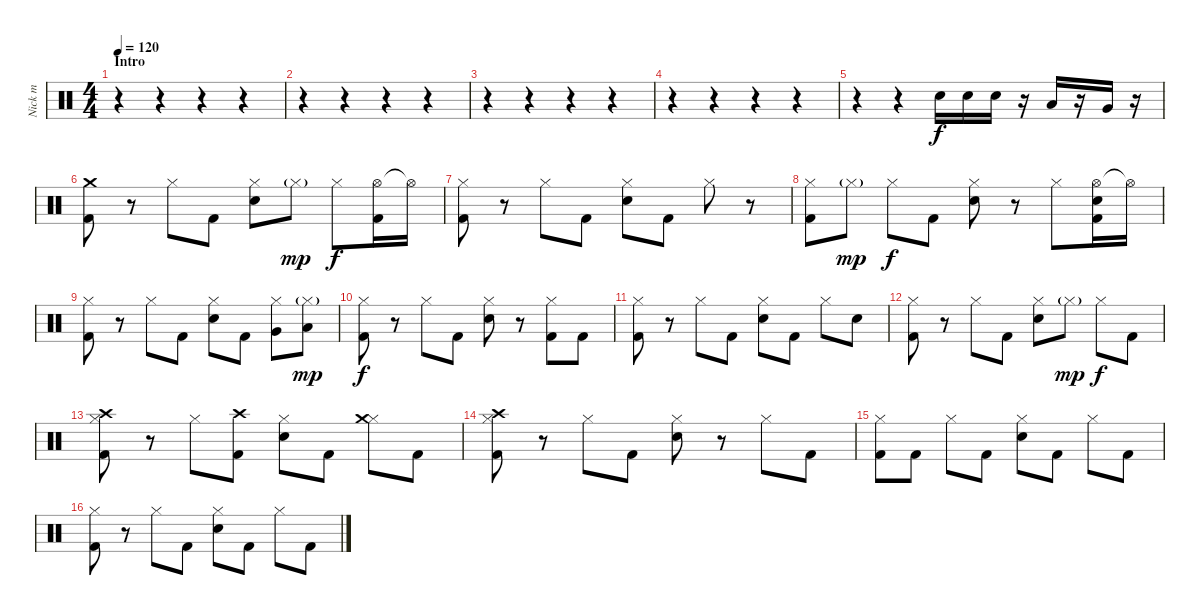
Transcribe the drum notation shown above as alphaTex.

\track ("Nick m" "Nick m") {instrument percussion}
\staff {score}
\articulation defaults
\ts (4 4)
\section ("" "Intro")
\tempo 120
\clef neutral
\ks c
r.4{dy f} r.4 r.4 r.4 |
r.4 r.4 r.4 r.4 |
r.4 r.4 r.4 r.4 |
r.4 r.4 r.4 r.4 |
r.4 r.4 "Snare (hit) 2".16 "Snare (hit) 2".16 "Snare (hit) 2".16 r.16 "Low Tom (hit)".16 r.16 "Very Low Tom (hit)".16 r.16 |
("Crash medium (hit)" "Kick (hit) 2").8 r.8 "Hi-Hat (closed)".8 "Kick (hit) 2".8 ("Hi-Hat (closed)" "Snare (hit) 2").8 "Hi-Hat (closed)"{g}.8{dy mp} "Hi-Hat (closed)".8{dy f} ("Hi-Hat (open)" "Kick (hit) 2").16 "Hi-Hat (open)"{t}.16 |
("Hi-Hat (closed)" "Kick (hit) 2").8 r.8 "Hi-Hat (closed)".8 "Kick (hit) 2".8 ("Hi-Hat (closed)" "Snare (hit) 2").8 "Kick (hit) 2".8 "Hi-Hat (closed)".8 r.8 |
("Hi-Hat (closed)" "Kick (hit) 2").8 "Hi-Hat (closed)"{g}.8{dy mp} "Hi-Hat (closed)".8{dy f} "Kick (hit) 2".8 ("Hi-Hat (closed)" "Snare (hit) 2").8 r.8 "Hi-Hat (closed)".8 ("Hi-Hat (open)" "Snare (hit) 2" "Kick (hit) 2").16 "Hi-Hat (open)"{t}.16 |
("Hi-Hat (closed)" "Kick (hit) 2").8 r.8 "Hi-Hat (closed)".8 "Kick (hit) 2".8 ("Hi-Hat (closed)" "Snare (hit) 2").8 "Kick (hit) 2".8 ("Hi-Hat (closed)" "Very Low Tom (hit)").8 ("Hi-Hat (closed)"{g} "Low Floor Tom (hit)").8{dy mp} |
("Hi-Hat (closed)" "Kick (hit) 2").8{dy f} r.8 "Hi-Hat (closed)".8 "Kick (hit) 2".8 ("Hi-Hat (closed)" "Snare (hit) 2").8 r.8 ("Hi-Hat (closed)" "Kick (hit) 2").8 "Kick (hit) 2".8 |
("Hi-Hat (closed)" "Kick (hit) 2").8 r.8 "Hi-Hat (closed)".8 "Kick (hit) 2".8 ("Hi-Hat (closed)" "Snare (hit) 2").8 "Kick (hit) 2".8 "Hi-Hat (closed)".8 "Snare (hit) 2".8 |
("Hi-Hat (closed)" "Kick (hit) 2").8 r.8 "Hi-Hat (closed)".8 "Kick (hit) 2".8 ("Hi-Hat (closed)" "Snare (hit) 2").8 "Hi-Hat (closed)"{g}.8{dy mp} "Hi-Hat (closed)".8{dy f} "Kick (hit) 2".8 |
("Hi-Hat (closed)" "Crash high (hit)" "Kick (hit) 2").8 r.8 "Hi-Hat (closed)".8 ("Crash high (hit)" "Kick (hit) 2").8 ("Hi-Hat (closed)" "Snare (hit) 2").8 "Kick (hit) 2".8 ("Hi-Hat (closed)" "Crash medium (hit)").8 "Kick (hit) 2".8 |
("Hi-Hat (closed)" "Crash high (hit)" "Kick (hit) 2").8 r.8 "Hi-Hat (closed)".8 "Kick (hit) 2".8 ("Hi-Hat (closed)" "Snare (hit) 2").8 r.8 "Hi-Hat (closed)".8 "Kick (hit) 2".8 |
("Hi-Hat (closed)" "Kick (hit) 2").8 "Kick (hit) 2".8 "Hi-Hat (closed)".8 "Kick (hit) 2".8 ("Hi-Hat (closed)" "Snare (hit) 2").8 "Kick (hit) 2".8 "Hi-Hat (closed)".8 "Kick (hit) 2".8 |
("Hi-Hat (closed)" "Kick (hit) 2").8 r.8 "Hi-Hat (closed)".8 "Kick (hit) 2".8 ("Hi-Hat (closed)" "Snare (hit) 2").8 "Kick (hit) 2".8 "Hi-Hat (closed)".8 "Kick (hit) 2".8
